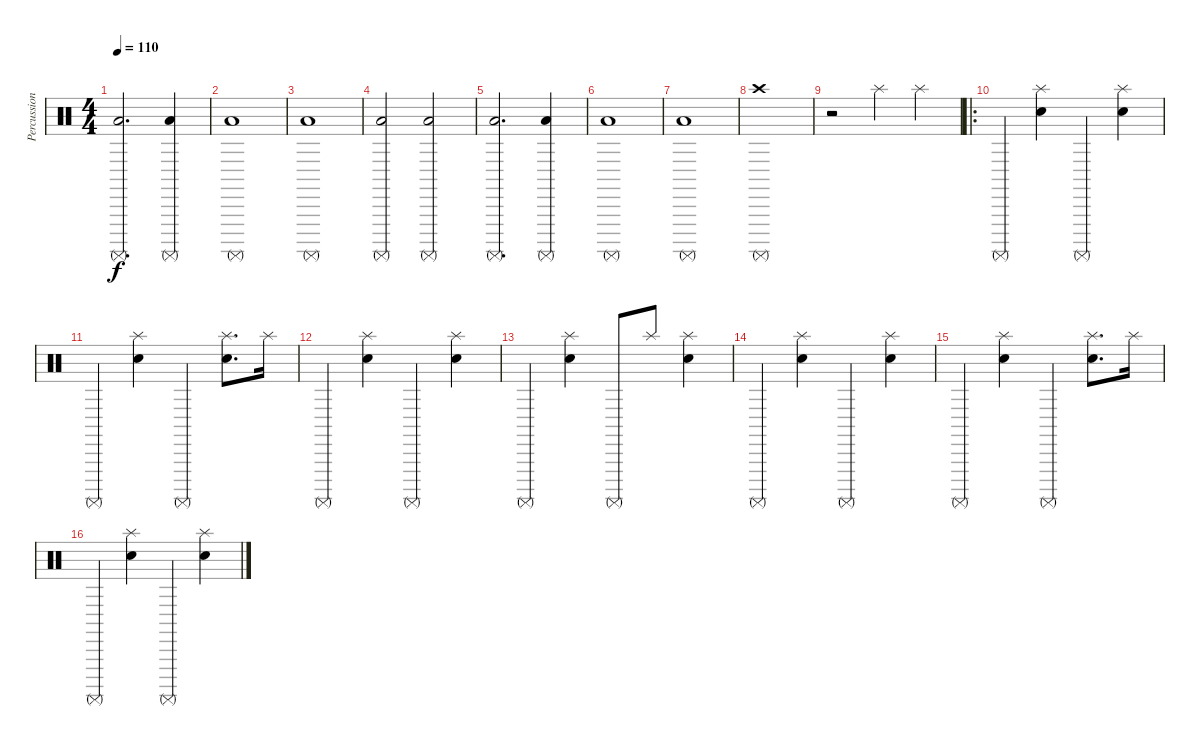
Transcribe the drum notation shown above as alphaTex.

\track ("Percussions" "Percussion") {instrument percussion}
\staff {score}
\articulation defaults
\ts (4 4)
\tempo 110
\clef neutral
\ks c
("Surdo (mute)" "Low Floor Tom (hit)").2{d dy f} ("Surdo (mute)" "Low Floor Tom (hit)").4 |
("Surdo (mute)" "Low Floor Tom (hit)").1 |
("Surdo (mute)" "Low Floor Tom (hit)").1 |
("Surdo (mute)" "Low Floor Tom (hit)").2 ("Surdo (mute)" "Low Floor Tom (hit)").2 |
("Surdo (mute)" "Low Floor Tom (hit)").2{d} ("Surdo (mute)" "Low Floor Tom (hit)").4 |
("Surdo (mute)" "Low Floor Tom (hit)").1 |
("Surdo (mute)" "Low Floor Tom (hit)").1 |
("Crash high (hit)" "Surdo (mute)").1 |
r.2 "Splash (hit)".4 "Splash (hit)".4 |
\ro "Surdo (mute)".4
("Splash (hit)" "Snare (hit) 2").4 "Surdo (mute)".4 ("Splash (hit)" "Snare (hit) 2").4 |
"Surdo (mute)".4 ("Splash (hit)" "Snare (hit) 2").4 "Surdo (mute)".4 ("Splash (hit)" "Snare (hit) 2").8{d} "Splash (hit)".16 |
"Surdo (mute)".4 ("Splash (hit)" "Snare (hit) 2").4 "Surdo (mute)".4 ("Splash (hit)" "Snare (hit) 2").4 |
"Surdo (mute)".4 ("Splash (hit)" "Snare (hit) 2").4 "Surdo (mute)".8 "Splash (hit)".8 ("Splash (hit)" "Snare (hit) 2").4 |
"Surdo (mute)".4 ("Splash (hit)" "Snare (hit) 2").4 "Surdo (mute)".4 ("Splash (hit)" "Snare (hit) 2").4 |
"Surdo (mute)".4 ("Splash (hit)" "Snare (hit) 2").4 "Surdo (mute)".4 ("Splash (hit)" "Snare (hit) 2").8{d} "Splash (hit)".16 |
"Surdo (mute)".4 ("Splash (hit)" "Snare (hit) 2").4 "Surdo (mute)".4 ("Splash (hit)" "Snare (hit) 2").4
